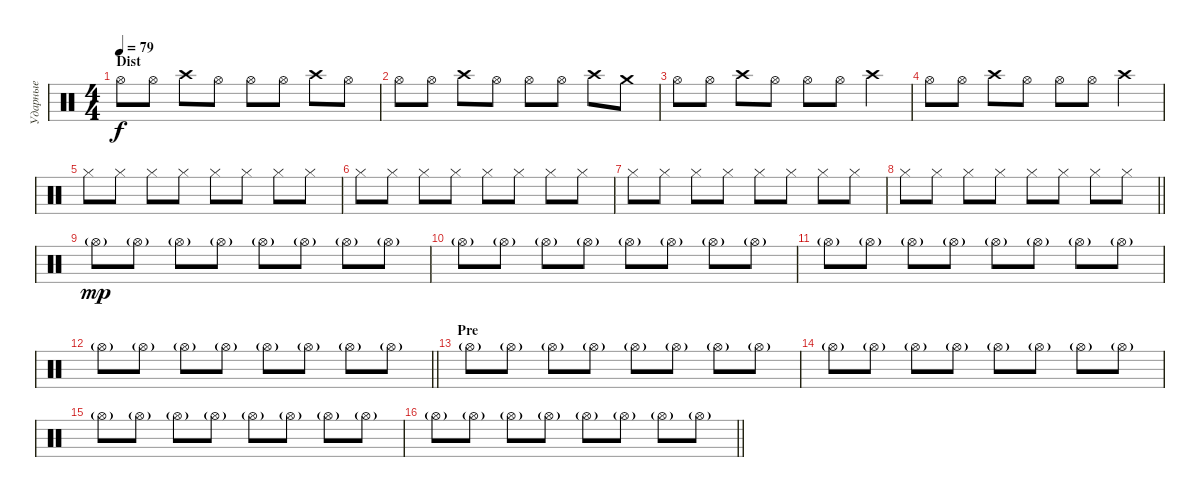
\track ("Ударные" "Ударные") {instrument percussion}
\staff {score}
\articulation defaults
\ts (4 4)
\section ("" "Dist")
\tempo 79
\clef neutral
\ks c "Hi-Hat (open)".8{dy f} "Hi-Hat (open)".8 "Crash high (hit)".8 "Hi-Hat (open)".8 "Hi-Hat (open)".8 "Hi-Hat (open)".8 "Crash high (hit)".8 "Hi-Hat (open)".8
|
"Hi-Hat (open)".8 "Hi-Hat (open)".8 "Crash high (hit)".8 "Hi-Hat (open)".8 "Hi-Hat (open)".8 "Hi-Hat (open)".8 "Crash high (hit)".8 "Crash medium (hit)".8 |
"Hi-Hat (open)".8 "Hi-Hat (open)".8 "Crash high (hit)".8 "Hi-Hat (open)".8 "Hi-Hat (open)".8 "Hi-Hat (open)".8 "Crash high (hit)".4 |
"Hi-Hat (open)".8 "Hi-Hat (open)".8 "Crash high (hit)".8 "Hi-Hat (open)".8 "Hi-Hat (open)".8 "Hi-Hat (open)".8 "Crash high (hit)".4 |
"Hi-Hat (closed)".8 "Hi-Hat (closed)".8 "Hi-Hat (closed)".8 "Hi-Hat (closed)".8 "Hi-Hat (closed)".8 "Hi-Hat (closed)".8 "Hi-Hat (closed)".8 "Hi-Hat (closed)".8 |
"Hi-Hat (closed)".8 "Hi-Hat (closed)".8 "Hi-Hat (closed)".8 "Hi-Hat (closed)".8 "Hi-Hat (closed)".8 "Hi-Hat (closed)".8 "Hi-Hat (closed)".8 "Hi-Hat (closed)".8 |
"Hi-Hat (closed)".8 "Hi-Hat (closed)".8 "Hi-Hat (closed)".8 "Hi-Hat (closed)".8 "Hi-Hat (closed)".8 "Hi-Hat (closed)".8 "Hi-Hat (closed)".8 "Hi-Hat (closed)".8 |
\barLineRight lightlight "Hi-Hat (closed)".8 "Hi-Hat (closed)".8 "Hi-Hat (closed)".8 "Hi-Hat (closed)".8 "Hi-Hat (closed)".8 "Hi-Hat (closed)".8 "Hi-Hat (closed)".8 "Hi-Hat (closed)".8
|
"Hi-Hat (open)"{g}.8{dy mp} "Hi-Hat (open)"{g}.8 "Hi-Hat (open)"{g}.8 "Hi-Hat (open)"{g}.8 "Hi-Hat (open)"{g}.8 "Hi-Hat (open)"{g}.8 "Hi-Hat (open)"{g}.8 "Hi-Hat (open)"{g}.8 |
"Hi-Hat (open)"{g}.8 "Hi-Hat (open)"{g}.8 "Hi-Hat (open)"{g}.8 "Hi-Hat (open)"{g}.8 "Hi-Hat (open)"{g}.8 "Hi-Hat (open)"{g}.8 "Hi-Hat (open)"{g}.8 "Hi-Hat (open)"{g}.8 |
"Hi-Hat (open)"{g}.8 "Hi-Hat (open)"{g}.8 "Hi-Hat (open)"{g}.8 "Hi-Hat (open)"{g}.8 "Hi-Hat (open)"{g}.8 "Hi-Hat (open)"{g}.8 "Hi-Hat (open)"{g}.8 "Hi-Hat (open)"{g}.8 |
\barLineRight lightlight "Hi-Hat (open)"{g}.8 "Hi-Hat (open)"{g}.8 "Hi-Hat (open)"{g}.8 "Hi-Hat (open)"{g}.8 "Hi-Hat (open)"{g}.8 "Hi-Hat (open)"{g}.8 "Hi-Hat (open)"{g}.8 "Hi-Hat (open)"{g}.8
|
\section ("" "Pre")
"Hi-Hat (open)"{g}.8 "Hi-Hat (open)"{g}.8 "Hi-Hat (open)"{g}.8 "Hi-Hat (open)"{g}.8 "Hi-Hat (open)"{g}.8 "Hi-Hat (open)"{g}.8 "Hi-Hat (open)"{g}.8 "Hi-Hat (open)"{g}.8 |
"Hi-Hat (open)"{g}.8 "Hi-Hat (open)"{g}.8 "Hi-Hat (open)"{g}.8 "Hi-Hat (open)"{g}.8 "Hi-Hat (open)"{g}.8 "Hi-Hat (open)"{g}.8 "Hi-Hat (open)"{g}.8 "Hi-Hat (open)"{g}.8 |
"Hi-Hat (open)"{g}.8 "Hi-Hat (open)"{g}.8 "Hi-Hat (open)"{g}.8 "Hi-Hat (open)"{g}.8 "Hi-Hat (open)"{g}.8 "Hi-Hat (open)"{g}.8 "Hi-Hat (open)"{g}.8 "Hi-Hat (open)"{g}.8 |
\barLineRight lightlight "Hi-Hat (open)"{g}.8 "Hi-Hat (open)"{g}.8 "Hi-Hat (open)"{g}.8 "Hi-Hat (open)"{g}.8 "Hi-Hat (open)"{g}.8 "Hi-Hat (open)"{g}.8 "Hi-Hat (open)"{g}.8 "Hi-Hat (open)"{g}.8
